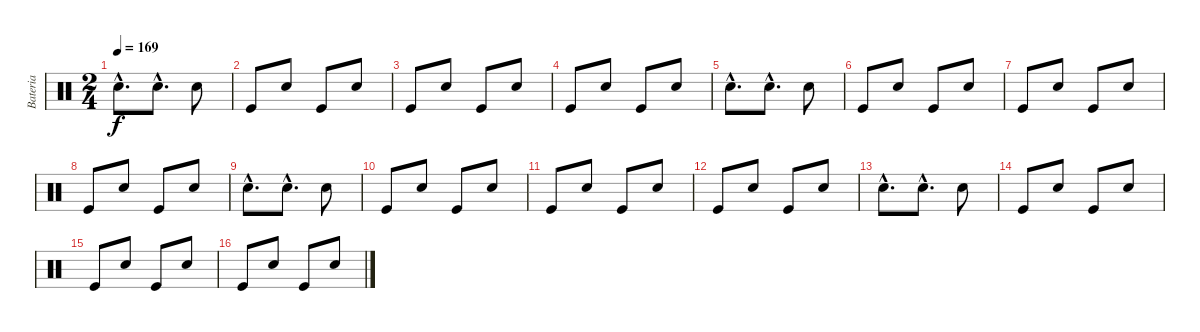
\track ("Bateria" "Bateria") {instrument percussion}
\staff {score}
\articulation defaults
\ts (2 4)
\tempo 169
\clef neutral
\ks c "Snare (hit) 2"{hac}.8{d dy f} "Snare (hit) 2"{hac}.8{d} "Snare (hit) 2".8
|
"Kick (hit)".8 "Snare (hit) 2".8 "Kick (hit)".8 "Snare (hit) 2".8 |
"Kick (hit)".8 "Snare (hit) 2".8 "Kick (hit)".8 "Snare (hit) 2".8 |
"Kick (hit)".8 "Snare (hit) 2".8 "Kick (hit)".8 "Snare (hit) 2".8 |
"Snare (hit) 2"{hac}.8{d} "Snare (hit) 2"{hac}.8{d} "Snare (hit) 2".8 |
"Kick (hit)".8 "Snare (hit) 2".8 "Kick (hit)".8 "Snare (hit) 2".8 |
"Kick (hit)".8 "Snare (hit) 2".8 "Kick (hit)".8 "Snare (hit) 2".8 |
"Kick (hit)".8 "Snare (hit) 2".8 "Kick (hit)".8 "Snare (hit) 2".8 |
"Snare (hit) 2"{hac}.8{d} "Snare (hit) 2"{hac}.8{d} "Snare (hit) 2".8 |
"Kick (hit)".8 "Snare (hit) 2".8 "Kick (hit)".8 "Snare (hit) 2".8 |
"Kick (hit)".8 "Snare (hit) 2".8 "Kick (hit)".8 "Snare (hit) 2".8 |
"Kick (hit)".8 "Snare (hit) 2".8 "Kick (hit)".8 "Snare (hit) 2".8 |
"Snare (hit) 2"{hac}.8{d} "Snare (hit) 2"{hac}.8{d} "Snare (hit) 2".8 |
"Kick (hit)".8 "Snare (hit) 2".8 "Kick (hit)".8 "Snare (hit) 2".8 |
"Kick (hit)".8 "Snare (hit) 2".8 "Kick (hit)".8 "Snare (hit) 2".8 |
"Kick (hit)".8 "Snare (hit) 2".8 "Kick (hit)".8 "Snare (hit) 2".8
